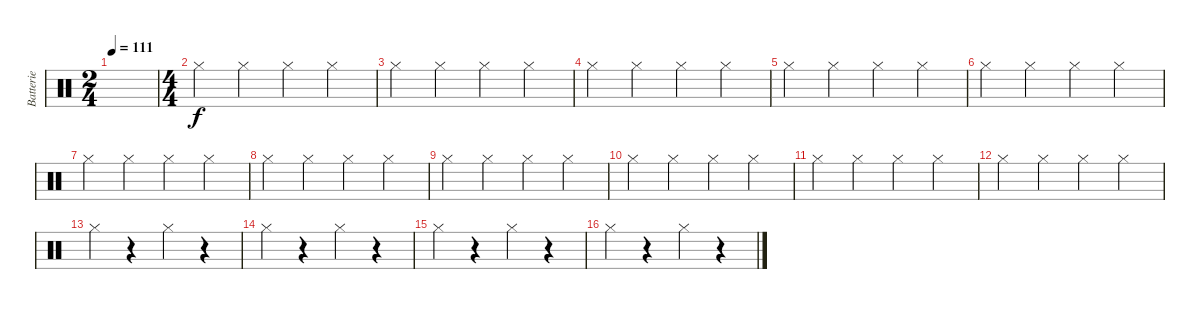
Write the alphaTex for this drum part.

\track ("Batterie" "Batterie") {instrument percussion}
\staff {score}
\articulation defaults
\ts (2 4)
\tempo 111
\clef neutral
\ks c
|
\ts (4 4)
"Hi-Hat (closed)".4 "Hi-Hat (closed)".4 "Hi-Hat (closed)".4 "Hi-Hat (closed)".4 |
"Hi-Hat (closed)".4 "Hi-Hat (closed)".4 "Hi-Hat (closed)".4 "Hi-Hat (closed)".4 |
"Hi-Hat (closed)".4 "Hi-Hat (closed)".4 "Hi-Hat (closed)".4 "Hi-Hat (closed)".4 |
"Hi-Hat (closed)".4 "Hi-Hat (closed)".4 "Hi-Hat (closed)".4 "Hi-Hat (closed)".4 |
"Hi-Hat (closed)".4 "Hi-Hat (closed)".4 "Hi-Hat (closed)".4 "Hi-Hat (closed)".4 |
"Hi-Hat (closed)".4 "Hi-Hat (closed)".4 "Hi-Hat (closed)".4 "Hi-Hat (closed)".4 |
"Hi-Hat (closed)".4 "Hi-Hat (closed)".4 "Hi-Hat (closed)".4 "Hi-Hat (closed)".4 |
"Hi-Hat (closed)".4 "Hi-Hat (closed)".4 "Hi-Hat (closed)".4 "Hi-Hat (closed)".4 |
"Hi-Hat (closed)".4 "Hi-Hat (closed)".4 "Hi-Hat (closed)".4 "Hi-Hat (closed)".4 |
"Hi-Hat (closed)".4 "Hi-Hat (closed)".4 "Hi-Hat (closed)".4 "Hi-Hat (closed)".4 |
"Hi-Hat (closed)".4 "Hi-Hat (closed)".4 "Hi-Hat (closed)".4 "Hi-Hat (closed)".4 |
"Hi-Hat (closed)".4 r.4 "Hi-Hat (closed)".4 r.4 |
"Hi-Hat (closed)".4 r.4 "Hi-Hat (closed)".4 r.4 |
"Hi-Hat (closed)".4 r.4 "Hi-Hat (closed)".4 r.4 |
"Hi-Hat (closed)".4 r.4 "Hi-Hat (closed)".4 r.4
